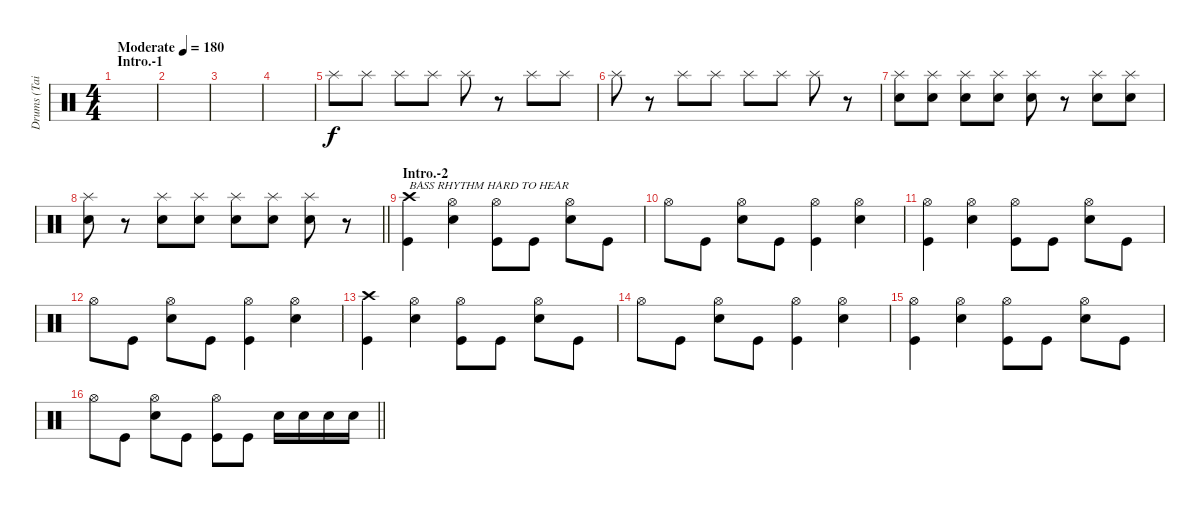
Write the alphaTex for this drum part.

\track ("Drums (Tainaka Ritsu)" "Drums (Tai") {instrument percussion}
\staff {score}
\articulation defaults
\ts (4 4)
\section ("" "Intro.-1")
\tempo (180 "Moderate")
\clef neutral
\ks c
|
|
|
|
"Splash (hit)".8 "Splash (hit)".8 "Splash (hit)".8 "Splash (hit)".8 "Splash (hit)".8 r.8 "Splash (hit)".8 "Splash (hit)".8 |
"Splash (hit)".8 r.8 "Splash (hit)".8 "Splash (hit)".8 "Splash (hit)".8 "Splash (hit)".8 "Splash (hit)".8 r.8 |
("Splash (hit)" "Snare (hit) 2").8 ("Splash (hit)" "Snare (hit) 2").8 ("Splash (hit)" "Snare (hit) 2").8 ("Splash (hit)" "Snare (hit) 2").8 ("Splash (hit)" "Snare (hit) 2").8 r.8 ("Splash (hit)" "Snare (hit) 2").8 ("Splash (hit)" "Snare (hit) 2").8 |
\barLineRight lightlight
("Splash (hit)" "Snare (hit) 2").8 r.8 ("Splash (hit)" "Snare (hit) 2").8 ("Splash (hit)" "Snare (hit) 2").8 ("Splash (hit)" "Snare (hit) 2").8 ("Splash (hit)" "Snare (hit) 2").8 ("Splash (hit)" "Snare (hit) 2").8 r.8 |
\section ("" "Intro.-2")
("Crash high (hit)" "Kick (hit)").4{txt "BASS RHYTHM HARD TO HEAR"} ("Hi-Hat (open)" "Snare (hit) 2").4 ("Hi-Hat (open)" "Kick (hit)").8 "Kick (hit)".8 ("Hi-Hat (open)" "Snare (hit) 2").8 "Kick (hit)".8 |
"Hi-Hat (open)".8 "Kick (hit)".8 ("Hi-Hat (open)" "Snare (hit) 2").8 "Kick (hit)".8 ("Hi-Hat (open)" "Kick (hit)").4 ("Hi-Hat (open)" "Snare (hit) 2").4 |
("Hi-Hat (open)" "Kick (hit)").4 ("Hi-Hat (open)" "Snare (hit) 2").4 ("Hi-Hat (open)" "Kick (hit)").8 "Kick (hit)".8 ("Hi-Hat (open)" "Snare (hit) 2").8 "Kick (hit)".8 |
"Hi-Hat (open)".8 "Kick (hit)".8 ("Hi-Hat (open)" "Snare (hit) 2").8 "Kick (hit)".8 ("Hi-Hat (open)" "Kick (hit)").4 ("Hi-Hat (open)" "Snare (hit) 2").4 |
("Crash high (hit)" "Kick (hit)").4 ("Hi-Hat (open)" "Snare (hit) 2").4 ("Hi-Hat (open)" "Kick (hit)").8 "Kick (hit)".8 ("Hi-Hat (open)" "Snare (hit) 2").8 "Kick (hit)".8 |
"Hi-Hat (open)".8 "Kick (hit)".8 ("Hi-Hat (open)" "Snare (hit) 2").8 "Kick (hit)".8 ("Hi-Hat (open)" "Kick (hit)").4 ("Hi-Hat (open)" "Snare (hit) 2").4 |
("Hi-Hat (open)" "Kick (hit)").4 ("Hi-Hat (open)" "Snare (hit) 2").4 ("Hi-Hat (open)" "Kick (hit)").8 "Kick (hit)".8 ("Hi-Hat (open)" "Snare (hit) 2").8 "Kick (hit)".8 |
\barLineRight lightlight "Hi-Hat (open)".8 "Kick (hit)".8
("Hi-Hat (open)" "Snare (hit) 2").8 "Kick (hit)".8 ("Hi-Hat (open)" "Kick (hit)").8 "Kick (hit)".8 "Snare (hit) 2".16 "Snare (hit) 2".16 "Snare (hit) 2".16 "Snare (hit) 2".16
